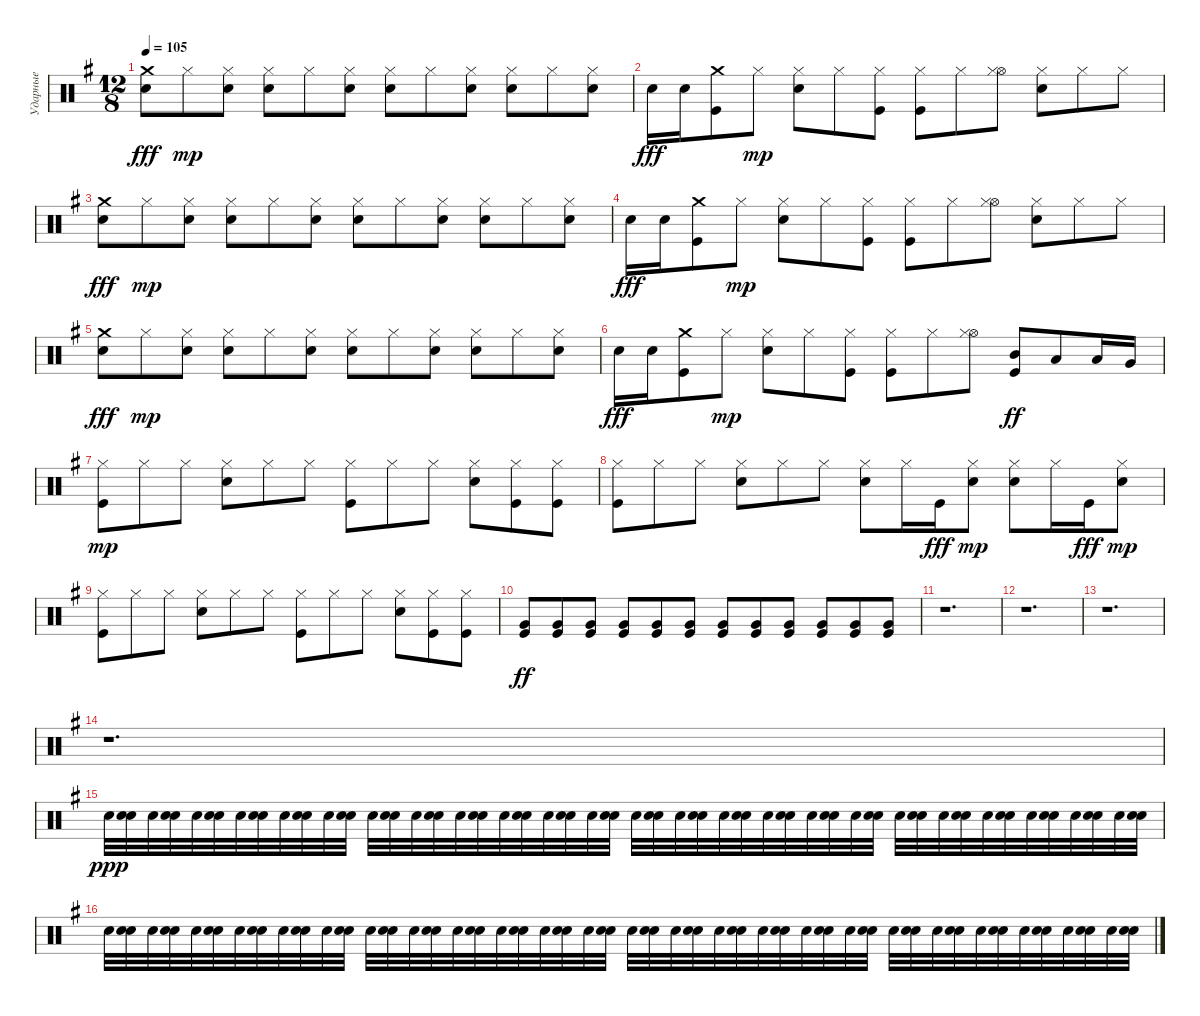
\track ("Ударные" "Ударные") {instrument percussion}
\staff {score}
\articulation defaults
\ts (12 8)
\tempo 105
\clef neutral
\ks eminor
("Crash medium (hit)" "Electric Snare (hit)").8{dy fff} "Hi-Hat (closed)".8{dy mp} ("Electric Snare (hit)" "Hi-Hat (closed)").8 ("Electric Snare (hit)" "Hi-Hat (closed)").8 "Hi-Hat (closed)".8 ("Electric Snare (hit)" "Hi-Hat (closed)").8 ("Electric Snare (hit)" "Hi-Hat (closed)").8 "Hi-Hat (closed)".8 ("Electric Snare (hit)" "Hi-Hat (closed)").8 ("Electric Snare (hit)" "Hi-Hat (closed)").8 "Hi-Hat (closed)".8 ("Electric Snare (hit)" "Hi-Hat (closed)").8 |
"Electric Snare (hit)".16{dy fff} "Electric Snare (hit)".16 ("Crash medium (hit)" "Kick (hit)").8 "Hi-Hat (closed)".8{dy mp} ("Electric Snare (hit)" "Hi-Hat (closed)").8 "Hi-Hat (closed)".8 ("Kick (hit)" "Hi-Hat (closed)").8 ("Kick (hit)" "Hi-Hat (closed)").8 "Hi-Hat (closed)".8 ("Hi-Hat (open)" "Hi-Hat (closed)").8 ("Electric Snare (hit)" "Hi-Hat (closed)").8 "Hi-Hat (closed)".8 "Hi-Hat (closed)".8 |
("Crash medium (hit)" "Electric Snare (hit)").8{dy fff} "Hi-Hat (closed)".8{dy mp} ("Electric Snare (hit)" "Hi-Hat (closed)").8 ("Electric Snare (hit)" "Hi-Hat (closed)").8 "Hi-Hat (closed)".8 ("Electric Snare (hit)" "Hi-Hat (closed)").8 ("Electric Snare (hit)" "Hi-Hat (closed)").8 "Hi-Hat (closed)".8 ("Electric Snare (hit)" "Hi-Hat (closed)").8 ("Electric Snare (hit)" "Hi-Hat (closed)").8 "Hi-Hat (closed)".8 ("Electric Snare (hit)" "Hi-Hat (closed)").8 |
"Electric Snare (hit)".16{dy fff} "Electric Snare (hit)".16 ("Crash medium (hit)" "Kick (hit)").8 "Hi-Hat (closed)".8{dy mp} ("Electric Snare (hit)" "Hi-Hat (closed)").8 "Hi-Hat (closed)".8 ("Kick (hit)" "Hi-Hat (closed)").8 ("Kick (hit)" "Hi-Hat (closed)").8 "Hi-Hat (closed)".8 ("Hi-Hat (open)" "Hi-Hat (closed)").8 ("Electric Snare (hit)" "Hi-Hat (closed)").8 "Hi-Hat (closed)".8 "Hi-Hat (closed)".8 |
("Crash medium (hit)" "Electric Snare (hit)").8{dy fff} "Hi-Hat (closed)".8{dy mp} ("Electric Snare (hit)" "Hi-Hat (closed)").8 ("Electric Snare (hit)" "Hi-Hat (closed)").8 "Hi-Hat (closed)".8 ("Electric Snare (hit)" "Hi-Hat (closed)").8 ("Electric Snare (hit)" "Hi-Hat (closed)").8 "Hi-Hat (closed)".8 ("Electric Snare (hit)" "Hi-Hat (closed)").8 ("Electric Snare (hit)" "Hi-Hat (closed)").8 "Hi-Hat (closed)".8 ("Electric Snare (hit)" "Hi-Hat (closed)").8 |
"Electric Snare (hit)".16{dy fff} "Electric Snare (hit)".16 ("Crash medium (hit)" "Kick (hit)").8 "Hi-Hat (closed)".8{dy mp} ("Electric Snare (hit)" "Hi-Hat (closed)").8 "Hi-Hat (closed)".8 ("Kick (hit)" "Hi-Hat (closed)").8 ("Kick (hit)" "Hi-Hat (closed)").8 "Hi-Hat (closed)".8 ("Hi-Hat (open)" "Hi-Hat (closed)").8 ("Kick (hit)" "Mid Tom (hit)").8{dy ff} "Low Tom (hit)".8 "Low Tom (hit)".16 "Very Low Tom (hit)".16 |
("Kick (hit)" "Hi-Hat (closed)").8{dy mp} "Hi-Hat (closed)".8 "Hi-Hat (closed)".8 ("Electric Snare (hit)" "Hi-Hat (closed)").8 "Hi-Hat (closed)".8 "Hi-Hat (closed)".8 ("Kick (hit)" "Hi-Hat (closed)").8 "Hi-Hat (closed)".8 "Hi-Hat (closed)".8 ("Electric Snare (hit)" "Hi-Hat (closed)").8 ("Kick (hit)" "Hi-Hat (closed)").8 ("Kick (hit)" "Hi-Hat (closed)").8 |
("Kick (hit)" "Hi-Hat (closed)").8 "Hi-Hat (closed)".8 "Hi-Hat (closed)".8 ("Electric Snare (hit)" "Hi-Hat (closed)").8 "Hi-Hat (closed)".8 "Hi-Hat (closed)".8 ("Electric Snare (hit)" "Hi-Hat (closed)").8 "Hi-Hat (closed)".16 "Kick (hit)".16{dy fff} ("Electric Snare (hit)" "Hi-Hat (closed)").8{dy mp} ("Electric Snare (hit)" "Hi-Hat (closed)").8 "Hi-Hat (closed)".16 "Kick (hit)".16{dy fff} ("Electric Snare (hit)" "Hi-Hat (closed)").8{dy mp} |
("Kick (hit)" "Hi-Hat (closed)").8 "Hi-Hat (closed)".8 "Hi-Hat (closed)".8 ("Electric Snare (hit)" "Hi-Hat (closed)").8 "Hi-Hat (closed)".8 "Hi-Hat (closed)".8 ("Kick (hit)" "Hi-Hat (closed)").8 "Hi-Hat (closed)".8 "Hi-Hat (closed)".8 ("Electric Snare (hit)" "Hi-Hat (closed)").8 ("Kick (hit)" "Hi-Hat (closed)").8 ("Kick (hit)" "Hi-Hat (closed)").8 |
("Kick (hit)" "Very Low Tom (hit)").8{dy ff} ("Kick (hit)" "Very Low Tom (hit)").8 ("Kick (hit)" "Very Low Tom (hit)").8 ("Kick (hit)" "Very Low Tom (hit)").8 ("Kick (hit)" "Very Low Tom (hit)").8 ("Kick (hit)" "Very Low Tom (hit)").8 ("Kick (hit)" "Very Low Tom (hit)").8 ("Kick (hit)" "Very Low Tom (hit)").8 ("Kick (hit)" "Very Low Tom (hit)").8 ("Kick (hit)" "Very Low Tom (hit)").8 ("Kick (hit)" "Very Low Tom (hit)").8 ("Kick (hit)" "Very Low Tom (hit)").8 |
r.1{d} |
r.1{d} |
r.1{d} |
r.1{d} |
"Snare (hit) 2".32{dy ppp} ("Snare (hit) 2" "Snare (hit) 2").32 "Snare (hit) 2".32 ("Snare (hit) 2" "Snare (hit) 2").32 "Snare (hit) 2".32 ("Snare (hit) 2" "Snare (hit) 2").32 "Snare (hit) 2".32 ("Snare (hit) 2" "Snare (hit) 2").32 "Snare (hit) 2".32 ("Snare (hit) 2" "Snare (hit) 2").32 "Snare (hit) 2".32 ("Snare (hit) 2" "Snare (hit) 2").32 "Snare (hit) 2".32 ("Snare (hit) 2" "Snare (hit) 2").32 "Snare (hit) 2".32 ("Snare (hit) 2" "Snare (hit) 2").32 "Snare (hit) 2".32 ("Snare (hit) 2" "Snare (hit) 2").32 "Snare (hit) 2".32 ("Snare (hit) 2" "Snare (hit) 2").32 "Snare (hit) 2".32 ("Snare (hit) 2" "Snare (hit) 2").32 "Snare (hit) 2".32 ("Snare (hit) 2" "Snare (hit) 2").32 "Snare (hit) 2".32 ("Snare (hit) 2" "Snare (hit) 2").32 "Snare (hit) 2".32 ("Snare (hit) 2" "Snare (hit) 2").32 "Snare (hit) 2".32 ("Snare (hit) 2" "Snare (hit) 2").32 "Snare (hit) 2".32 ("Snare (hit) 2" "Snare (hit) 2").32 "Snare (hit) 2".32 ("Snare (hit) 2" "Snare (hit) 2").32 "Snare (hit) 2".32 ("Snare (hit) 2" "Snare (hit) 2").32 "Snare (hit) 2".32 ("Snare (hit) 2" "Snare (hit) 2").32 "Snare (hit) 2".32 ("Snare (hit) 2" "Snare (hit) 2").32 "Snare (hit) 2".32 ("Snare (hit) 2" "Snare (hit) 2").32 "Snare (hit) 2".32 ("Snare (hit) 2" "Snare (hit) 2").32 "Snare (hit) 2".32 ("Snare (hit) 2" "Snare (hit) 2").32 "Snare (hit) 2".32 ("Snare (hit) 2" "Snare (hit) 2").32 |
"Snare (hit) 2".32 ("Snare (hit) 2" "Snare (hit) 2").32 "Snare (hit) 2".32 ("Snare (hit) 2" "Snare (hit) 2").32 "Snare (hit) 2".32 ("Snare (hit) 2" "Snare (hit) 2").32 "Snare (hit) 2".32 ("Snare (hit) 2" "Snare (hit) 2").32 "Snare (hit) 2".32 ("Snare (hit) 2" "Snare (hit) 2").32 "Snare (hit) 2".32 ("Snare (hit) 2" "Snare (hit) 2").32 "Snare (hit) 2".32 ("Snare (hit) 2" "Snare (hit) 2").32 "Snare (hit) 2".32 ("Snare (hit) 2" "Snare (hit) 2").32 "Snare (hit) 2".32 ("Snare (hit) 2" "Snare (hit) 2").32 "Snare (hit) 2".32 ("Snare (hit) 2" "Snare (hit) 2").32 "Snare (hit) 2".32 ("Snare (hit) 2" "Snare (hit) 2").32 "Snare (hit) 2".32 ("Snare (hit) 2" "Snare (hit) 2").32 "Snare (hit) 2".32 ("Snare (hit) 2" "Snare (hit) 2").32 "Snare (hit) 2".32 ("Snare (hit) 2" "Snare (hit) 2").32 "Snare (hit) 2".32 ("Snare (hit) 2" "Snare (hit) 2").32 "Snare (hit) 2".32 ("Snare (hit) 2" "Snare (hit) 2").32 "Snare (hit) 2".32 ("Snare (hit) 2" "Snare (hit) 2").32 "Snare (hit) 2".32 ("Snare (hit) 2" "Snare (hit) 2").32 "Snare (hit) 2".32 ("Snare (hit) 2" "Snare (hit) 2").32 "Snare (hit) 2".32 ("Snare (hit) 2" "Snare (hit) 2").32 "Snare (hit) 2".32 ("Snare (hit) 2" "Snare (hit) 2").32 "Snare (hit) 2".32 ("Snare (hit) 2" "Snare (hit) 2").32 "Snare (hit) 2".32 ("Snare (hit) 2" "Snare (hit) 2").32 "Snare (hit) 2".32 ("Snare (hit) 2" "Snare (hit) 2").32
